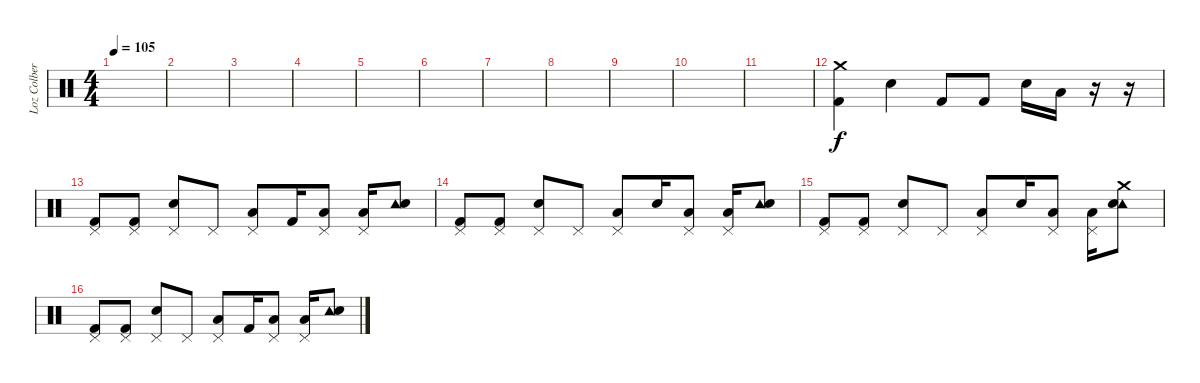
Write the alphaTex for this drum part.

\track ("Loz Colbert" "Loz Colber") {instrument percussion}
\staff {score}
\articulation defaults
\ts (4 4)
\tempo 105
\clef neutral
\ks c
|
|
|
|
|
|
|
|
|
|
|
("Crash medium (hit)" "Kick (hit) 2").4 "Snare (hit) 2".4 "Kick (hit) 2".8 "Kick (hit) 2".8 "Snare (hit) 2".16 "Low Tom (hit)".16 r.16 r.16 |
("Pedal Hi-Hat (hit)" "Kick (hit) 2").8 ("Pedal Hi-Hat (hit)" "Kick (hit) 2").8 ("Pedal Hi-Hat (hit)" "Snare (hit) 2").8 "Pedal Hi-Hat (hit)".8 ("Pedal Hi-Hat (hit)" "Low Tom (hit)").8 "Kick (hit) 2".16 ("Pedal Hi-Hat (hit)" "Low Tom (hit)").8 ("Pedal Hi-Hat (hit)" "Low Tom (hit)").16 ("Tambourine (hit)" "Snare (hit) 2").8 |
("Pedal Hi-Hat (hit)" "Kick (hit) 2").8 ("Pedal Hi-Hat (hit)" "Kick (hit) 2").8 ("Pedal Hi-Hat (hit)" "Snare (hit) 2").8 "Pedal Hi-Hat (hit)".8 ("Pedal Hi-Hat (hit)" "Low Tom (hit)").8 "Snare (hit) 2".16 ("Pedal Hi-Hat (hit)" "Low Tom (hit)").8 ("Pedal Hi-Hat (hit)" "Low Tom (hit)").16 ("Tambourine (hit)" "Snare (hit) 2").8 |
("Pedal Hi-Hat (hit)" "Kick (hit) 2").8 ("Pedal Hi-Hat (hit)" "Kick (hit) 2").8 ("Pedal Hi-Hat (hit)" "Snare (hit) 2").8 "Pedal Hi-Hat (hit)".8 ("Pedal Hi-Hat (hit)" "Low Tom (hit)").8 "Snare (hit) 2".16 ("Pedal Hi-Hat (hit)" "Low Tom (hit)").8 ("Pedal Hi-Hat (hit)" "Low Tom (hit)").16 ("Tambourine (hit)" "Crash medium (hit)" "Snare (hit) 2").8 |
("Pedal Hi-Hat (hit)" "Kick (hit) 2").8 ("Pedal Hi-Hat (hit)" "Kick (hit) 2").8 ("Pedal Hi-Hat (hit)" "Snare (hit) 2").8 "Pedal Hi-Hat (hit)".8 ("Pedal Hi-Hat (hit)" "Low Tom (hit)").8 "Kick (hit) 2".16 ("Pedal Hi-Hat (hit)" "Low Tom (hit)").8 ("Pedal Hi-Hat (hit)" "Low Tom (hit)").16 ("Tambourine (hit)" "Snare (hit) 2").8
